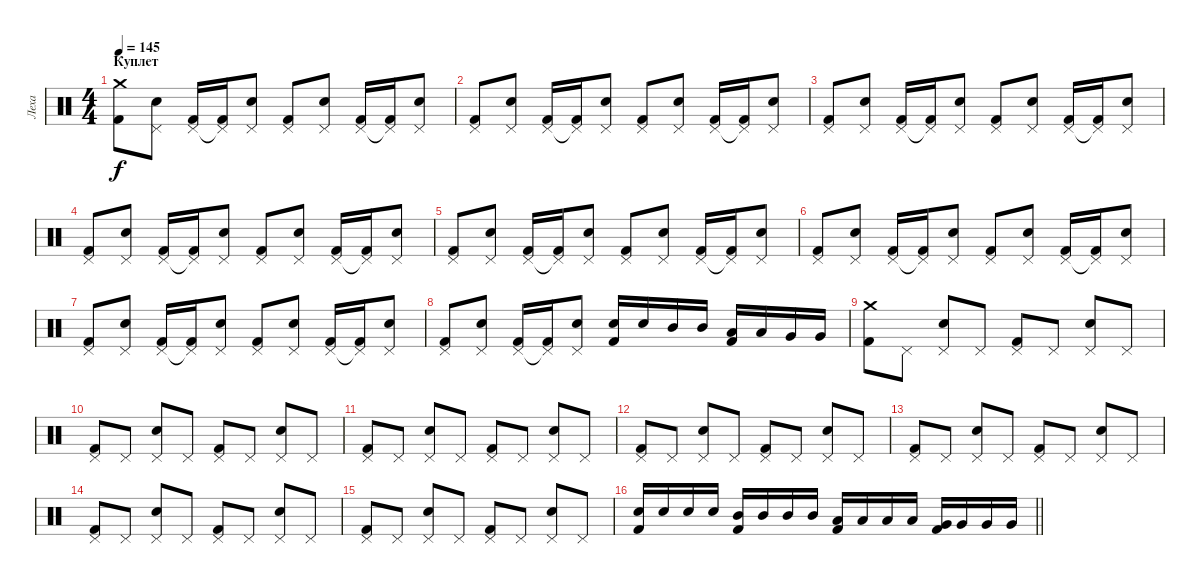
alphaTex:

\track ("Леха" "Леха") {instrument percussion}
\staff {score}
\articulation defaults
\ts (4 4)
\section ("" "Куплет")
\tempo 145
\clef neutral
\ks c
("Crash medium (hit)" "Kick (hit) 2").8{dy f} ("Pedal Hi-Hat (hit)" "Electric Snare (hit)").8 ("Pedal Hi-Hat (hit)" "Kick (hit) 2").16 ("Pedal Hi-Hat (hit)"{t} "Kick (hit) 2").16 ("Pedal Hi-Hat (hit)" "Electric Snare (hit)").8 ("Pedal Hi-Hat (hit)" "Kick (hit) 2").8 ("Pedal Hi-Hat (hit)" "Electric Snare (hit)").8 ("Pedal Hi-Hat (hit)" "Kick (hit) 2").16 ("Pedal Hi-Hat (hit)"{t} "Kick (hit) 2").16 ("Pedal Hi-Hat (hit)" "Electric Snare (hit)").8 |
("Pedal Hi-Hat (hit)" "Kick (hit) 2").8 ("Pedal Hi-Hat (hit)" "Electric Snare (hit)").8 ("Pedal Hi-Hat (hit)" "Kick (hit) 2").16 ("Pedal Hi-Hat (hit)"{t} "Kick (hit) 2").16 ("Pedal Hi-Hat (hit)" "Electric Snare (hit)").8 ("Pedal Hi-Hat (hit)" "Kick (hit) 2").8 ("Pedal Hi-Hat (hit)" "Electric Snare (hit)").8 ("Pedal Hi-Hat (hit)" "Kick (hit) 2").16 ("Pedal Hi-Hat (hit)"{t} "Kick (hit) 2").16 ("Pedal Hi-Hat (hit)" "Electric Snare (hit)").8 |
("Pedal Hi-Hat (hit)" "Kick (hit) 2").8 ("Pedal Hi-Hat (hit)" "Electric Snare (hit)").8 ("Pedal Hi-Hat (hit)" "Kick (hit) 2").16 ("Pedal Hi-Hat (hit)"{t} "Kick (hit) 2").16 ("Pedal Hi-Hat (hit)" "Electric Snare (hit)").8 ("Pedal Hi-Hat (hit)" "Kick (hit) 2").8 ("Pedal Hi-Hat (hit)" "Electric Snare (hit)").8 ("Pedal Hi-Hat (hit)" "Kick (hit) 2").16 ("Pedal Hi-Hat (hit)"{t} "Kick (hit) 2").16 ("Pedal Hi-Hat (hit)" "Electric Snare (hit)").8 |
("Pedal Hi-Hat (hit)" "Kick (hit) 2").8 ("Pedal Hi-Hat (hit)" "Electric Snare (hit)").8 ("Pedal Hi-Hat (hit)" "Kick (hit) 2").16 ("Pedal Hi-Hat (hit)"{t} "Kick (hit) 2").16 ("Pedal Hi-Hat (hit)" "Electric Snare (hit)").8 ("Pedal Hi-Hat (hit)" "Kick (hit) 2").8 ("Pedal Hi-Hat (hit)" "Electric Snare (hit)").8 ("Pedal Hi-Hat (hit)" "Kick (hit) 2").16 ("Pedal Hi-Hat (hit)"{t} "Kick (hit) 2").16 ("Pedal Hi-Hat (hit)" "Electric Snare (hit)").8 |
("Pedal Hi-Hat (hit)" "Kick (hit) 2").8 ("Pedal Hi-Hat (hit)" "Electric Snare (hit)").8 ("Pedal Hi-Hat (hit)" "Kick (hit) 2").16 ("Pedal Hi-Hat (hit)"{t} "Kick (hit) 2").16 ("Pedal Hi-Hat (hit)" "Electric Snare (hit)").8 ("Pedal Hi-Hat (hit)" "Kick (hit) 2").8 ("Pedal Hi-Hat (hit)" "Electric Snare (hit)").8 ("Pedal Hi-Hat (hit)" "Kick (hit) 2").16 ("Pedal Hi-Hat (hit)"{t} "Kick (hit) 2").16 ("Pedal Hi-Hat (hit)" "Electric Snare (hit)").8 |
("Pedal Hi-Hat (hit)" "Kick (hit) 2").8 ("Pedal Hi-Hat (hit)" "Electric Snare (hit)").8 ("Pedal Hi-Hat (hit)" "Kick (hit) 2").16 ("Pedal Hi-Hat (hit)"{t} "Kick (hit) 2").16 ("Pedal Hi-Hat (hit)" "Electric Snare (hit)").8 ("Pedal Hi-Hat (hit)" "Kick (hit) 2").8 ("Pedal Hi-Hat (hit)" "Electric Snare (hit)").8 ("Pedal Hi-Hat (hit)" "Kick (hit) 2").16 ("Pedal Hi-Hat (hit)"{t} "Kick (hit) 2").16 ("Pedal Hi-Hat (hit)" "Electric Snare (hit)").8 |
("Pedal Hi-Hat (hit)" "Kick (hit) 2").8 ("Pedal Hi-Hat (hit)" "Electric Snare (hit)").8 ("Pedal Hi-Hat (hit)" "Kick (hit) 2").16 ("Pedal Hi-Hat (hit)"{t} "Kick (hit) 2").16 ("Pedal Hi-Hat (hit)" "Electric Snare (hit)").8 ("Pedal Hi-Hat (hit)" "Kick (hit) 2").8 ("Pedal Hi-Hat (hit)" "Electric Snare (hit)").8 ("Pedal Hi-Hat (hit)" "Kick (hit) 2").16 ("Pedal Hi-Hat (hit)"{t} "Kick (hit) 2").16 ("Pedal Hi-Hat (hit)" "Electric Snare (hit)").8 |
("Pedal Hi-Hat (hit)" "Kick (hit) 2").8 ("Pedal Hi-Hat (hit)" "Electric Snare (hit)").8 ("Pedal Hi-Hat (hit)" "Kick (hit) 2").16 ("Pedal Hi-Hat (hit)"{t} "Kick (hit) 2").16 ("Pedal Hi-Hat (hit)" "Electric Snare (hit)").8 ("Electric Snare (hit)" "Kick (hit) 2").16 "Electric Snare (hit)".16 "Mid Tom (hit)".16 "Mid Tom (hit)".16 ("Low Tom (hit)" "Kick (hit) 2").16 "Low Tom (hit)".16 "Very Low Tom (hit)".16 "Very Low Tom (hit)".16 |
("Crash medium (hit)" "Kick (hit) 2").8 "Pedal Hi-Hat (hit)".8 ("Pedal Hi-Hat (hit)" "Electric Snare (hit)").8 "Pedal Hi-Hat (hit)".8 ("Pedal Hi-Hat (hit)" "Kick (hit) 2").8 "Pedal Hi-Hat (hit)".8 ("Pedal Hi-Hat (hit)" "Electric Snare (hit)").8 "Pedal Hi-Hat (hit)".8 |
("Pedal Hi-Hat (hit)" "Kick (hit) 2").8 "Pedal Hi-Hat (hit)".8 ("Pedal Hi-Hat (hit)" "Electric Snare (hit)").8 "Pedal Hi-Hat (hit)".8 ("Pedal Hi-Hat (hit)" "Kick (hit) 2").8 "Pedal Hi-Hat (hit)".8 ("Pedal Hi-Hat (hit)" "Electric Snare (hit)").8 "Pedal Hi-Hat (hit)".8 |
("Pedal Hi-Hat (hit)" "Kick (hit) 2").8 "Pedal Hi-Hat (hit)".8 ("Pedal Hi-Hat (hit)" "Electric Snare (hit)").8 "Pedal Hi-Hat (hit)".8 ("Pedal Hi-Hat (hit)" "Kick (hit) 2").8 "Pedal Hi-Hat (hit)".8 ("Pedal Hi-Hat (hit)" "Electric Snare (hit)").8 "Pedal Hi-Hat (hit)".8 |
("Pedal Hi-Hat (hit)" "Kick (hit) 2").8 "Pedal Hi-Hat (hit)".8 ("Pedal Hi-Hat (hit)" "Electric Snare (hit)").8 "Pedal Hi-Hat (hit)".8 ("Pedal Hi-Hat (hit)" "Kick (hit) 2").8 "Pedal Hi-Hat (hit)".8 ("Pedal Hi-Hat (hit)" "Electric Snare (hit)").8 "Pedal Hi-Hat (hit)".8 |
("Pedal Hi-Hat (hit)" "Kick (hit) 2").8 "Pedal Hi-Hat (hit)".8 ("Pedal Hi-Hat (hit)" "Electric Snare (hit)").8 "Pedal Hi-Hat (hit)".8 ("Pedal Hi-Hat (hit)" "Kick (hit) 2").8 "Pedal Hi-Hat (hit)".8 ("Pedal Hi-Hat (hit)" "Electric Snare (hit)").8 "Pedal Hi-Hat (hit)".8 |
("Pedal Hi-Hat (hit)" "Kick (hit) 2").8 "Pedal Hi-Hat (hit)".8 ("Pedal Hi-Hat (hit)" "Electric Snare (hit)").8 "Pedal Hi-Hat (hit)".8 ("Pedal Hi-Hat (hit)" "Kick (hit) 2").8 "Pedal Hi-Hat (hit)".8 ("Pedal Hi-Hat (hit)" "Electric Snare (hit)").8 "Pedal Hi-Hat (hit)".8 |
("Pedal Hi-Hat (hit)" "Kick (hit) 2").8 "Pedal Hi-Hat (hit)".8 ("Pedal Hi-Hat (hit)" "Electric Snare (hit)").8 "Pedal Hi-Hat (hit)".8 ("Pedal Hi-Hat (hit)" "Kick (hit) 2").8 "Pedal Hi-Hat (hit)".8 ("Pedal Hi-Hat (hit)" "Electric Snare (hit)").8 "Pedal Hi-Hat (hit)".8 |
\barLineRight lightlight
("Electric Snare (hit)" "Kick (hit) 2").16 "Electric Snare (hit)".16 "Electric Snare (hit)".16 "Electric Snare (hit)".16 ("Mid Tom (hit)" "Kick (hit) 2").16 "Mid Tom (hit)".16 "Mid Tom (hit)".16 "Mid Tom (hit)".16 ("Low Tom (hit)" "Kick (hit) 2").16 "Low Tom (hit)".16 "Low Tom (hit)".16 "Low Tom (hit)".16 ("Very Low Tom (hit)" "Kick (hit) 2").16 "Very Low Tom (hit)".16 "Very Low Tom (hit)".16 "Very Low Tom (hit)".16
